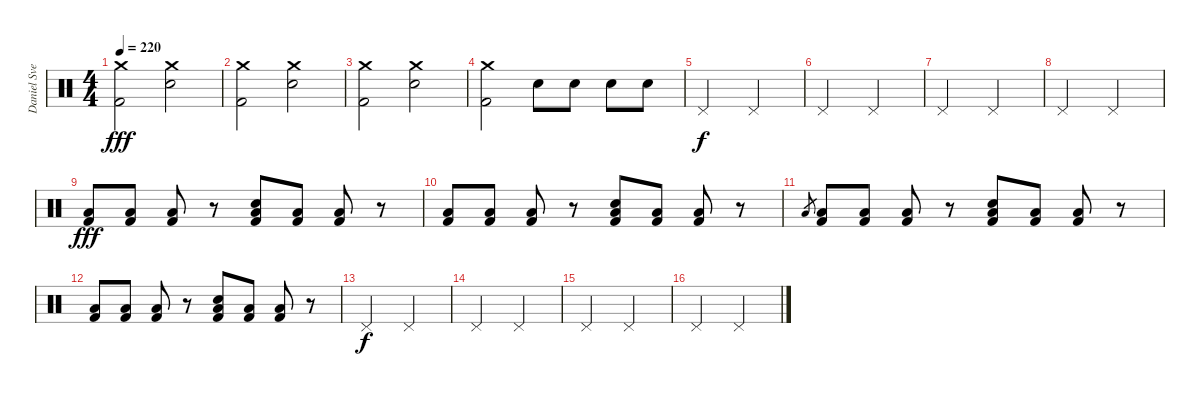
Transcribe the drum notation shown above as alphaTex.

\track ("Daniel Svensson" "Daniel Sve") {instrument percussion}
\staff {score}
\articulation defaults
\ts (4 4)
\tempo 220
\clef neutral
\ks c
("Crash medium (hit)" "Kick (hit) 2").2{dy fff} ("Crash medium (hit)" "Electric Snare (hit)").2 |
("Crash medium (hit)" "Kick (hit) 2").2 ("Crash medium (hit)" "Electric Snare (hit)").2 |
("Crash medium (hit)" "Kick (hit) 2").2 ("Crash medium (hit)" "Electric Snare (hit)").2 |
("Crash medium (hit)" "Kick (hit) 2").2 "Electric Snare (hit)".8 "Electric Snare (hit)".8 "Electric Snare (hit)".8 "Electric Snare (hit)".8 |
"Pedal Hi-Hat (hit)".2{dy f} "Pedal Hi-Hat (hit)".2 |
"Pedal Hi-Hat (hit)".2 "Pedal Hi-Hat (hit)".2 |
"Pedal Hi-Hat (hit)".2 "Pedal Hi-Hat (hit)".2 |
"Pedal Hi-Hat (hit)".2 "Pedal Hi-Hat (hit)".2 |
("Low Floor Tom (hit)" "Kick (hit) 2").8{dy fff} ("Low Floor Tom (hit)" "Kick (hit) 2").8 ("Low Floor Tom (hit)" "Kick (hit) 2").8 r.8 ("Low Floor Tom (hit)" "Electric Snare (hit)" "Kick (hit) 2").8 ("Low Floor Tom (hit)" "Kick (hit) 2").8 ("Low Floor Tom (hit)" "Kick (hit) 2").8 r.8 |
("Low Floor Tom (hit)" "Kick (hit) 2").8 ("Low Floor Tom (hit)" "Kick (hit) 2").8 ("Low Floor Tom (hit)" "Kick (hit) 2").8 r.8 ("Low Floor Tom (hit)" "Electric Snare (hit)" "Kick (hit) 2").8 ("Low Floor Tom (hit)" "Kick (hit) 2").8 ("Low Floor Tom (hit)" "Kick (hit) 2").8 r.8 |
"Low Floor Tom (hit)".8{gr} ("Low Floor Tom (hit)" "Kick (hit) 2").8 ("Low Floor Tom (hit)" "Kick (hit) 2").8 ("Low Floor Tom (hit)" "Kick (hit) 2").8 r.8 ("Low Floor Tom (hit)" "Electric Snare (hit)" "Kick (hit) 2").8 ("Low Floor Tom (hit)" "Kick (hit) 2").8 ("Low Floor Tom (hit)" "Kick (hit) 2").8 r.8 |
("Low Floor Tom (hit)" "Kick (hit) 2").8 ("Low Floor Tom (hit)" "Kick (hit) 2").8 ("Low Floor Tom (hit)" "Kick (hit) 2").8 r.8 ("Low Floor Tom (hit)" "Electric Snare (hit)" "Kick (hit) 2").8 ("Low Floor Tom (hit)" "Kick (hit) 2").8 ("Low Floor Tom (hit)" "Kick (hit) 2").8 r.8 |
"Pedal Hi-Hat (hit)".2{dy f} "Pedal Hi-Hat (hit)".2 |
"Pedal Hi-Hat (hit)".2 "Pedal Hi-Hat (hit)".2 |
"Pedal Hi-Hat (hit)".2 "Pedal Hi-Hat (hit)".2 |
"Pedal Hi-Hat (hit)".2 "Pedal Hi-Hat (hit)".2
